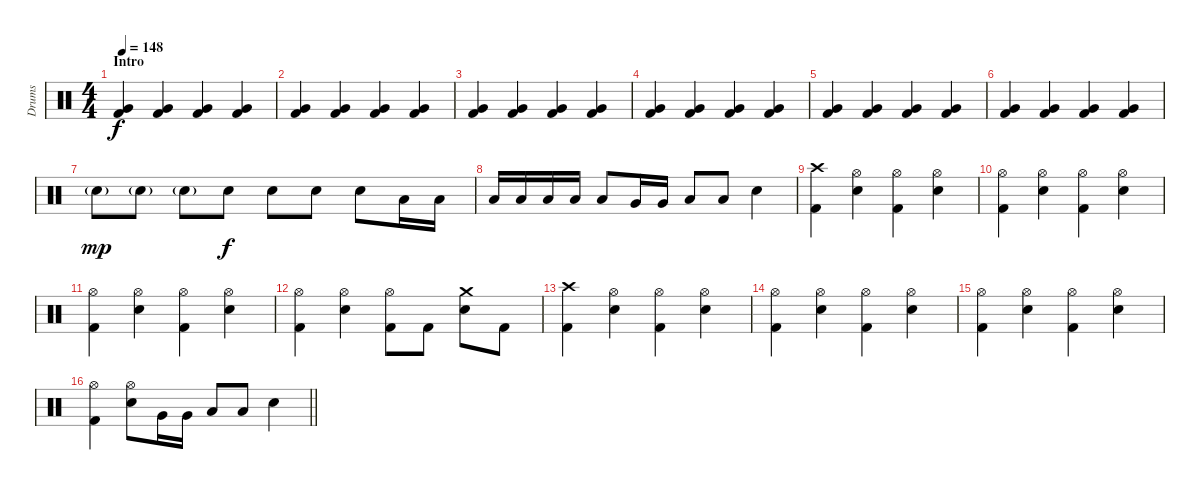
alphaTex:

\track ("Drums" "Drums") {instrument percussion}
\staff {score}
\articulation defaults
\ts (4 4)
\section ("" "Intro")
\tempo 148
\clef neutral
\ks c
("Very Low Tom (hit)" "Kick (hit) 2").4{dy f} ("Very Low Tom (hit)" "Kick (hit) 2").4 ("Very Low Tom (hit)" "Kick (hit) 2").4 ("Very Low Tom (hit)" "Kick (hit) 2").4 |
("Very Low Tom (hit)" "Kick (hit) 2").4 ("Very Low Tom (hit)" "Kick (hit) 2").4 ("Very Low Tom (hit)" "Kick (hit) 2").4 ("Very Low Tom (hit)" "Kick (hit) 2").4 |
("Very Low Tom (hit)" "Kick (hit) 2").4 ("Very Low Tom (hit)" "Kick (hit) 2").4 ("Very Low Tom (hit)" "Kick (hit) 2").4 ("Very Low Tom (hit)" "Kick (hit) 2").4 |
("Very Low Tom (hit)" "Kick (hit) 2").4 ("Very Low Tom (hit)" "Kick (hit) 2").4 ("Very Low Tom (hit)" "Kick (hit) 2").4 ("Very Low Tom (hit)" "Kick (hit) 2").4 |
("Very Low Tom (hit)" "Kick (hit) 2").4 ("Very Low Tom (hit)" "Kick (hit) 2").4 ("Very Low Tom (hit)" "Kick (hit) 2").4 ("Very Low Tom (hit)" "Kick (hit) 2").4 |
("Very Low Tom (hit)" "Kick (hit) 2").4 ("Very Low Tom (hit)" "Kick (hit) 2").4 ("Very Low Tom (hit)" "Kick (hit) 2").4 ("Very Low Tom (hit)" "Kick (hit) 2").4 |
"Snare (hit) 2"{g}.8{dy mp} "Snare (hit) 2"{g}.8 "Snare (hit) 2"{g}.8 "Snare (hit) 2".8{dy f} "Snare (hit) 2".8 "Snare (hit) 2".8 "Snare (hit) 2".8 "Low Tom (hit)".16 "Low Tom (hit)".16 |
"Low Tom (hit)".16 "Low Tom (hit)".16 "Low Tom (hit)".16 "Low Tom (hit)".16 "Low Tom (hit)".8 "Very Low Tom (hit)".16 "Very Low Tom (hit)".16 "Low Floor Tom (hit)".8 "Low Floor Tom (hit)".8 "Snare (hit) 2".4 |
("Crash high (hit)" "Kick (hit) 2").4 ("Hi-Hat (open)" "Snare (hit) 2").4 ("Hi-Hat (open)" "Kick (hit) 2").4 ("Hi-Hat (open)" "Snare (hit) 2").4 |
("Hi-Hat (open)" "Kick (hit) 2").4 ("Hi-Hat (open)" "Snare (hit) 2").4 ("Hi-Hat (open)" "Kick (hit) 2").4 ("Hi-Hat (open)" "Snare (hit) 2").4 |
("Hi-Hat (open)" "Kick (hit) 2").4 ("Hi-Hat (open)" "Snare (hit) 2").4 ("Hi-Hat (open)" "Kick (hit) 2").4 ("Hi-Hat (open)" "Snare (hit) 2").4 |
("Hi-Hat (open)" "Kick (hit) 2").4 ("Hi-Hat (open)" "Snare (hit) 2").4 ("Hi-Hat (open)" "Kick (hit) 2").8 "Kick (hit) 2".8 ("Crash medium (hit)" "Snare (hit) 2").8 "Kick (hit) 2".8 |
("Crash high (hit)" "Kick (hit) 2").4 ("Hi-Hat (open)" "Snare (hit) 2").4 ("Hi-Hat (open)" "Kick (hit) 2").4 ("Hi-Hat (open)" "Snare (hit) 2").4 |
("Hi-Hat (open)" "Kick (hit) 2").4 ("Hi-Hat (open)" "Snare (hit) 2").4 ("Hi-Hat (open)" "Kick (hit) 2").4 ("Hi-Hat (open)" "Snare (hit) 2").4 |
("Hi-Hat (open)" "Kick (hit) 2").4 ("Hi-Hat (open)" "Snare (hit) 2").4 ("Hi-Hat (open)" "Kick (hit) 2").4 ("Hi-Hat (open)" "Snare (hit) 2").4 |
\barLineRight lightlight
("Hi-Hat (open)" "Kick (hit) 2").4 ("Hi-Hat (open)" "Snare (hit) 2").8 "Very Low Tom (hit)".16 "Very Low Tom (hit)".16 "Low Floor Tom (hit)".8 "Low Floor Tom (hit)".8 "Snare (hit) 2".4
